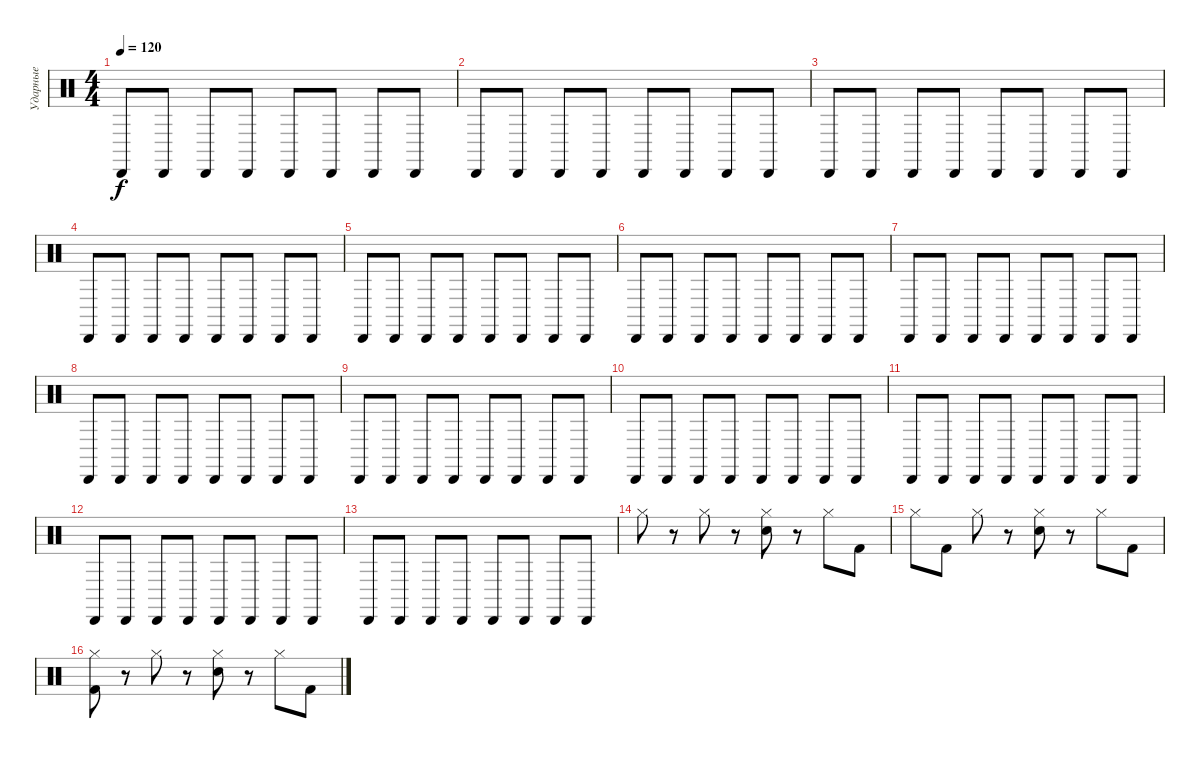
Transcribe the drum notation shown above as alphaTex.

\track ("Ударные" "Ударные") {instrument percussion}
\staff {score}
\articulation defaults
\ts (4 4)
\tempo 120
\clef neutral
\ks c "Cabasa (hit)".8{dy f} "Cabasa (hit)".8 "Cabasa (hit)".8 "Cabasa (hit)".8 "Cabasa (hit)".8 "Cabasa (hit)".8 "Cabasa (hit)".8 "Cabasa (hit)".8
|
"Cabasa (hit)".8 "Cabasa (hit)".8 "Cabasa (hit)".8 "Cabasa (hit)".8 "Cabasa (hit)".8 "Cabasa (hit)".8 "Cabasa (hit)".8 "Cabasa (hit)".8 |
"Cabasa (hit)".8 "Cabasa (hit)".8 "Cabasa (hit)".8 "Cabasa (hit)".8 "Cabasa (hit)".8 "Cabasa (hit)".8 "Cabasa (hit)".8 "Cabasa (hit)".8 |
"Cabasa (hit)".8 "Cabasa (hit)".8 "Cabasa (hit)".8 "Cabasa (hit)".8 "Cabasa (hit)".8 "Cabasa (hit)".8 "Cabasa (hit)".8 "Cabasa (hit)".8 |
"Cabasa (hit)".8 "Cabasa (hit)".8 "Cabasa (hit)".8 "Cabasa (hit)".8 "Cabasa (hit)".8 "Cabasa (hit)".8 "Cabasa (hit)".8 "Cabasa (hit)".8 |
"Cabasa (hit)".8 "Cabasa (hit)".8 "Cabasa (hit)".8 "Cabasa (hit)".8 "Cabasa (hit)".8 "Cabasa (hit)".8 "Cabasa (hit)".8 "Cabasa (hit)".8 |
"Cabasa (hit)".8 "Cabasa (hit)".8 "Cabasa (hit)".8 "Cabasa (hit)".8 "Cabasa (hit)".8 "Cabasa (hit)".8 "Cabasa (hit)".8 "Cabasa (hit)".8 |
"Cabasa (hit)".8 "Cabasa (hit)".8 "Cabasa (hit)".8 "Cabasa (hit)".8 "Cabasa (hit)".8 "Cabasa (hit)".8 "Cabasa (hit)".8 "Cabasa (hit)".8 |
"Cabasa (hit)".8 "Cabasa (hit)".8 "Cabasa (hit)".8 "Cabasa (hit)".8 "Cabasa (hit)".8 "Cabasa (hit)".8 "Cabasa (hit)".8 "Cabasa (hit)".8 |
"Cabasa (hit)".8 "Cabasa (hit)".8 "Cabasa (hit)".8 "Cabasa (hit)".8 "Cabasa (hit)".8 "Cabasa (hit)".8 "Cabasa (hit)".8 "Cabasa (hit)".8 |
"Cabasa (hit)".8 "Cabasa (hit)".8 "Cabasa (hit)".8 "Cabasa (hit)".8 "Cabasa (hit)".8 "Cabasa (hit)".8 "Cabasa (hit)".8 "Cabasa (hit)".8 |
"Cabasa (hit)".8 "Cabasa (hit)".8 "Cabasa (hit)".8 "Cabasa (hit)".8 "Cabasa (hit)".8 "Cabasa (hit)".8 "Cabasa (hit)".8 "Cabasa (hit)".8 |
"Cabasa (hit)".8 "Cabasa (hit)".8 "Cabasa (hit)".8 "Cabasa (hit)".8 "Cabasa (hit)".8 "Cabasa (hit)".8 "Cabasa (hit)".8 "Cabasa (hit)".8 |
"Hi-Hat (closed)".8 r.8 "Hi-Hat (closed)".8 r.8 ("Hi-Hat (closed)" "Electric Snare (hit)").8 r.8 "Hi-Hat (closed)".8 "Kick (hit) 2".8 |
"Hi-Hat (closed)".8 "Kick (hit) 2".8 "Hi-Hat (closed)".8 r.8 ("Hi-Hat (closed)" "Electric Snare (hit)").8 r.8 "Hi-Hat (closed)".8 "Kick (hit) 2".8 |
("Hi-Hat (closed)" "Kick (hit) 2").8 r.8 "Hi-Hat (closed)".8 r.8 ("Hi-Hat (closed)" "Electric Snare (hit)").8 r.8 "Hi-Hat (closed)".8 "Kick (hit) 2".8
